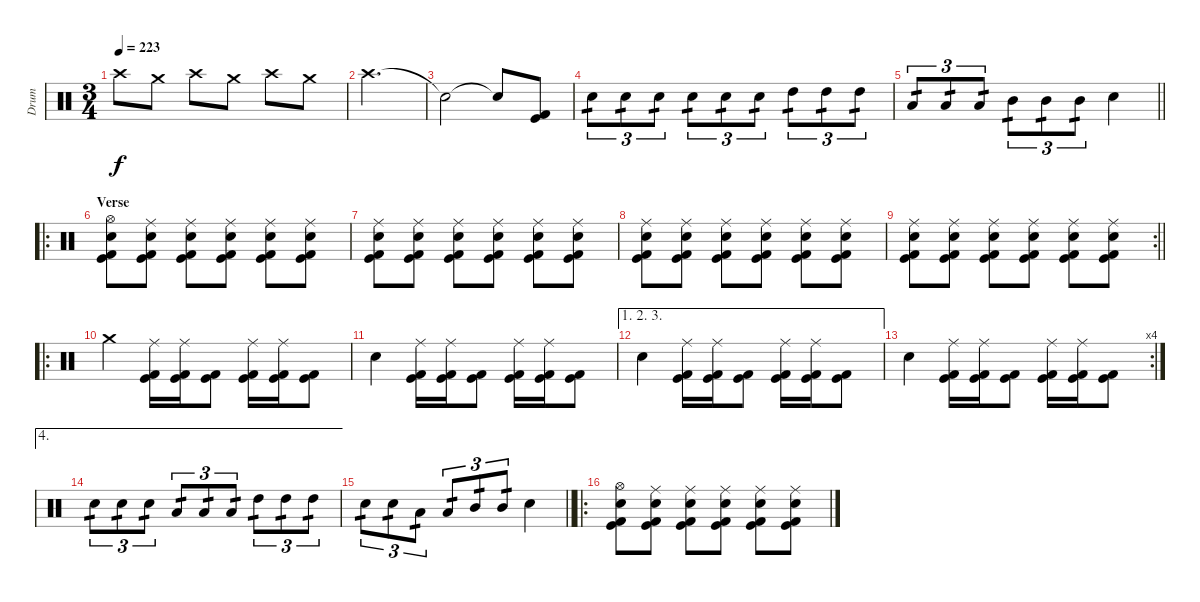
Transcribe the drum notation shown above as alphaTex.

\track ("Drum" "Drum") {instrument percussion}
\staff {score}
\articulation defaults
\ts (3 4)
\tempo 223
\clef neutral
\ks c "Crash high (hit)".8{dy f} "Crash medium (hit)".8 "Crash high (hit)".8 "Crash medium (hit)".8 "Crash high (hit)".8 "Crash medium (hit)".8
|
"Crash high (hit)".2{d volume 16} |
"Snare (hit)"{t}.2 "Snare (hit)"{t}.8 ("Kick (hit)" "Kick (hit) 2").8 |
"Electric Snare (hit)".8{tu (3 2) tp 1} "Electric Snare (hit)".8{tu (3 2) tp 1} "Electric Snare (hit)".8{tu (3 2) tp 1} "Electric Snare (hit)".8{tu (3 2) tp 1} "Electric Snare (hit)".8{tu (3 2) tp 1} "Electric Snare (hit)".8{tu (3 2) tp 1} "High Tom (hit)".8{tu (3 2) tp 1} "High Tom (hit)".8{tu (3 2) tp 1} "High Tom (hit)".8{tu (3 2) tp 1} |
\barLineRight lightlight "Low Tom (hit)".8{tu (3 2) tp 1} "Low Tom (hit)".8{tu (3 2) tp 1} "Low Tom (hit)".8{tu (3 2) tp 1} "Mid Tom (hit)".8{tu (3 2) tp 1} "Mid Tom (hit)".8{tu (3 2) tp 1} "Mid Tom (hit)".8{tu (3 2) tp 1} "Electric Snare (hit)".4
|
\ro
\section ("" "Verse")
("Hi-Hat (open)" "Electric Snare (hit)" "Kick (hit)" "Kick (hit) 2").8 ("Ride (middle)" "Electric Snare (hit)" "Kick (hit)" "Kick (hit) 2").8 ("Ride (middle)" "Electric Snare (hit)" "Kick (hit)" "Kick (hit) 2").8 ("Ride (middle)" "Electric Snare (hit)" "Kick (hit)" "Kick (hit) 2").8 ("Ride (middle)" "Electric Snare (hit)" "Kick (hit)" "Kick (hit) 2").8 ("Ride (middle)" "Electric Snare (hit)" "Kick (hit)" "Kick (hit) 2").8 |
("Ride (middle)" "Electric Snare (hit)" "Kick (hit)" "Kick (hit) 2").8 ("Ride (middle)" "Electric Snare (hit)" "Kick (hit)" "Kick (hit) 2").8 ("Ride (middle)" "Electric Snare (hit)" "Kick (hit)" "Kick (hit) 2").8 ("Ride (middle)" "Electric Snare (hit)" "Kick (hit)" "Kick (hit) 2").8 ("Ride (middle)" "Electric Snare (hit)" "Kick (hit)" "Kick (hit) 2").8 ("Ride (middle)" "Electric Snare (hit)" "Kick (hit)" "Kick (hit) 2").8 |
("Ride (middle)" "Electric Snare (hit)" "Kick (hit)" "Kick (hit) 2").8 ("Ride (middle)" "Electric Snare (hit)" "Kick (hit)" "Kick (hit) 2").8 ("Ride (middle)" "Electric Snare (hit)" "Kick (hit)" "Kick (hit) 2").8 ("Ride (middle)" "Electric Snare (hit)" "Kick (hit)" "Kick (hit) 2").8 ("Ride (middle)" "Electric Snare (hit)" "Kick (hit)" "Kick (hit) 2").8 ("Ride (middle)" "Electric Snare (hit)" "Kick (hit)" "Kick (hit) 2").8 |
\rc 2
\barLineRight lightlight
("Ride (middle)" "Electric Snare (hit)" "Kick (hit)" "Kick (hit) 2").8 ("Ride (middle)" "Electric Snare (hit)" "Kick (hit)" "Kick (hit) 2").8 ("Ride (middle)" "Electric Snare (hit)" "Kick (hit)" "Kick (hit) 2").8 ("Ride (middle)" "Electric Snare (hit)" "Kick (hit)" "Kick (hit) 2").8 ("Ride (middle)" "Electric Snare (hit)" "Kick (hit)" "Kick (hit) 2").8 ("Ride (middle)" "Electric Snare (hit)" "Kick (hit)" "Kick (hit) 2").8 |
\ro "Crash medium (hit)".4
("Ride (middle)" "Kick (hit)" "Kick (hit) 2").16 ("Ride (middle)" "Kick (hit)" "Kick (hit) 2").16 ("Kick (hit)" "Kick (hit) 2").8 ("Ride (middle)" "Kick (hit)" "Kick (hit) 2").16 ("Ride (middle)" "Kick (hit)" "Kick (hit) 2").16 ("Kick (hit)" "Kick (hit) 2").8 |
"Electric Snare (hit)".4 ("Ride (middle)" "Kick (hit)" "Kick (hit) 2").16 ("Ride (middle)" "Kick (hit)" "Kick (hit) 2").16 ("Kick (hit)" "Kick (hit) 2").8 ("Ride (middle)" "Kick (hit)" "Kick (hit) 2").16 ("Ride (middle)" "Kick (hit)" "Kick (hit) 2").16 ("Kick (hit)" "Kick (hit) 2").8 |
\ae (1 2 3)
"Electric Snare (hit)".4 ("Ride (middle)" "Kick (hit)" "Kick (hit) 2").16 ("Ride (middle)" "Kick (hit)" "Kick (hit) 2").16 ("Kick (hit)" "Kick (hit) 2").8 ("Ride (middle)" "Kick (hit)" "Kick (hit) 2").16 ("Ride (middle)" "Kick (hit)" "Kick (hit) 2").16 ("Kick (hit)" "Kick (hit) 2").8 |
\rc 4 "Electric Snare (hit)".4
("Ride (middle)" "Kick (hit)" "Kick (hit) 2").16 ("Ride (middle)" "Kick (hit)" "Kick (hit) 2").16 ("Kick (hit)" "Kick (hit) 2").8 ("Ride (middle)" "Kick (hit)" "Kick (hit) 2").16 ("Ride (middle)" "Kick (hit)" "Kick (hit) 2").16 ("Kick (hit)" "Kick (hit) 2").8 |
\ae 4 "Electric Snare (hit)".8{tu (3 2) tp 1} "Electric Snare (hit)".8{tu (3 2) tp 1} "Electric Snare (hit)".8{tu (3 2) tp 1} "Low Tom (hit)".8{tu (3 2) tp 1} "Low Tom (hit)".8{tu (3 2) tp 1} "Low Tom (hit)".8{tu (3 2) tp 1} "High Tom (hit)".8{tu (3 2) tp 1} "High Tom (hit)".8{tu (3 2) tp 1} "High Tom (hit)".8{tu (3 2) tp 1}
|
\barLineRight lightlight "Electric Snare (hit)".8{tu (3 2) tp 1} "Electric Snare (hit)".8{tu (3 2) tp 1} "Low Tom (hit)".8{tu (3 2) tp 1} "Low Tom (hit)".8{tu (3 2) tp 1} "Mid Tom (hit)".8{tu (3 2) tp 1} "Mid Tom (hit)".8{tu (3 2) tp 1} "Electric Snare (hit)".4
|
\ro
("Hi-Hat (open)" "Electric Snare (hit)" "Kick (hit)" "Kick (hit) 2").8 ("Ride (middle)" "Electric Snare (hit)" "Kick (hit)" "Kick (hit) 2").8 ("Ride (middle)" "Electric Snare (hit)" "Kick (hit)" "Kick (hit) 2").8 ("Ride (middle)" "Electric Snare (hit)" "Kick (hit)" "Kick (hit) 2").8 ("Ride (middle)" "Electric Snare (hit)" "Kick (hit)" "Kick (hit) 2").8 ("Ride (middle)" "Electric Snare (hit)" "Kick (hit)" "Kick (hit) 2").8
